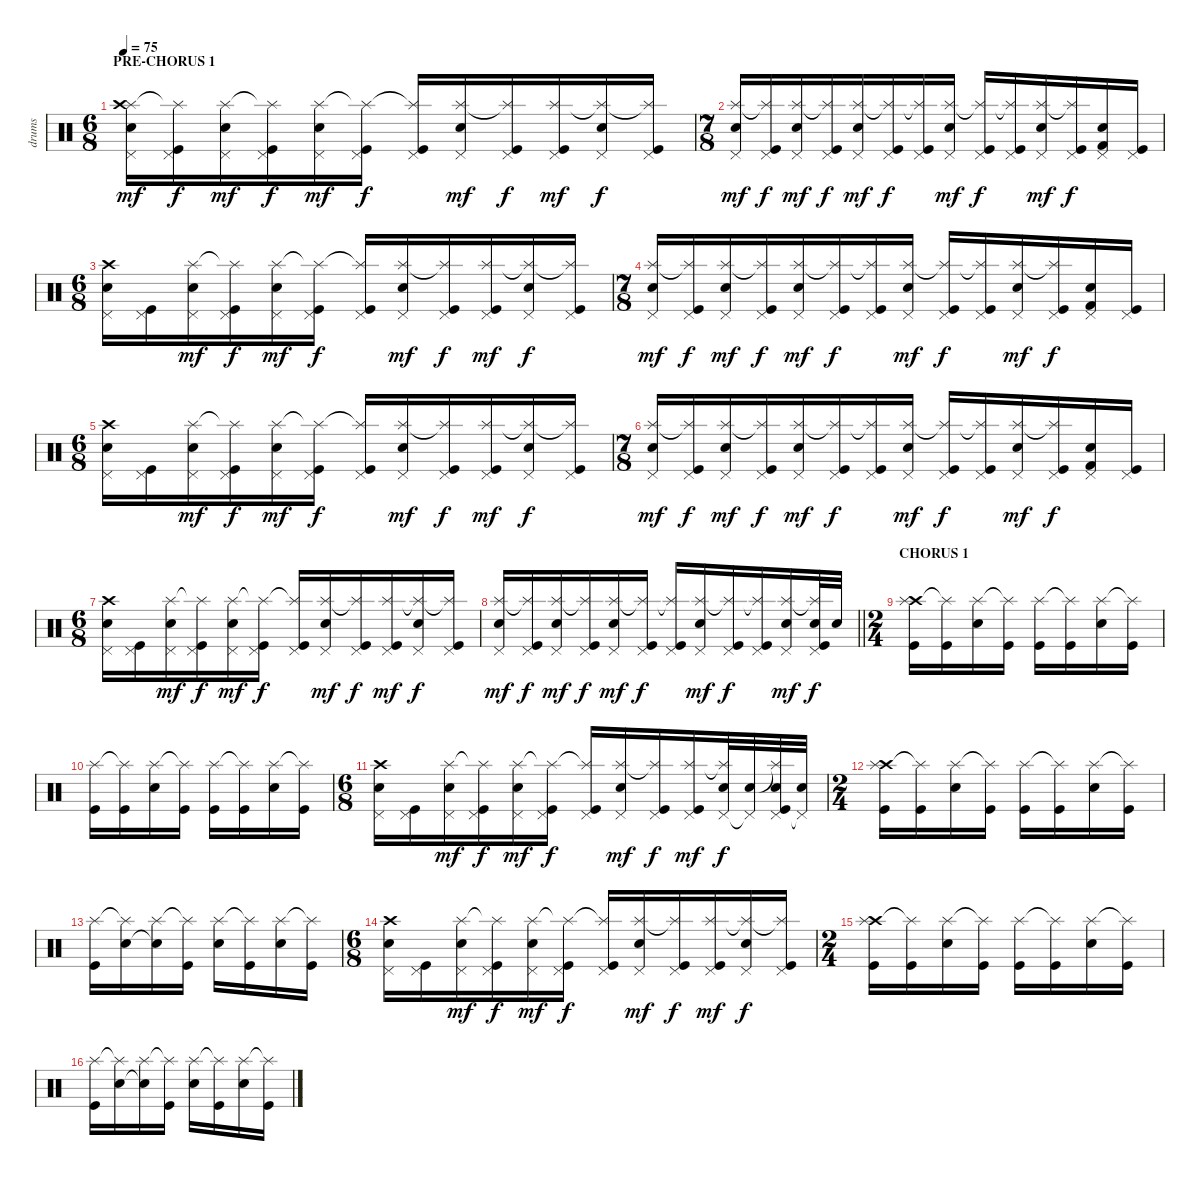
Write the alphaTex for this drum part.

\track ("drums" "drums") {instrument percussion}
\staff {score}
\articulation defaults
\ts (6 8)
\section ("" "PRE-CHORUS 1")
\tempo 75
\clef neutral
\ks c
("Pedal Hi-Hat (hit)" "Splash (hit)" "Electric Snare (hit)" "Crash high (hit)").16{dy mf} ("Pedal Hi-Hat (hit)" "Splash (hit)"{t} "Kick (hit)").16{dy f} ("Pedal Hi-Hat (hit)" "Splash (hit)" "Electric Snare (hit)").16{dy mf} ("Pedal Hi-Hat (hit)" "Splash (hit)"{t} "Kick (hit)").16{dy f} ("Pedal Hi-Hat (hit)" "Splash (hit)" "Electric Snare (hit)").16{dy mf} ("Pedal Hi-Hat (hit)" "Splash (hit)"{t} "Kick (hit)").16{dy f} ("Pedal Hi-Hat (hit)" "Splash (hit)"{t} "Kick (hit)").16 ("Pedal Hi-Hat (hit)" "Splash (hit)" "Electric Snare (hit)").16{dy mf} ("Pedal Hi-Hat (hit)" "Splash (hit)"{t} "Kick (hit)").16{dy f} ("Pedal Hi-Hat (hit)" "Splash (hit)" "Kick (hit)").16{dy mf} ("Pedal Hi-Hat (hit)" "Splash (hit)"{t} "Electric Snare (hit)").16{dy f} ("Pedal Hi-Hat (hit)" "Splash (hit)"{t} "Kick (hit)").16 |
\ts (7 8)
("Pedal Hi-Hat (hit)" "Splash (hit)" "Electric Snare (hit)").16{dy mf} ("Pedal Hi-Hat (hit)" "Splash (hit)"{t} "Kick (hit)").16{dy f} ("Pedal Hi-Hat (hit)" "Splash (hit)" "Electric Snare (hit)").16{dy mf} ("Pedal Hi-Hat (hit)" "Splash (hit)"{t} "Kick (hit)").16{dy f} ("Pedal Hi-Hat (hit)" "Splash (hit)" "Electric Snare (hit)").16{dy mf} ("Pedal Hi-Hat (hit)" "Splash (hit)"{t} "Kick (hit)").16{dy f} ("Pedal Hi-Hat (hit)" "Splash (hit)"{t} "Kick (hit)").16 ("Pedal Hi-Hat (hit)" "Splash (hit)" "Electric Snare (hit)").16{dy mf} ("Pedal Hi-Hat (hit)" "Splash (hit)"{t} "Kick (hit)").16{dy f} ("Pedal Hi-Hat (hit)" "Splash (hit)"{t} "Kick (hit)").16 ("Pedal Hi-Hat (hit)" "Splash (hit)" "Electric Snare (hit)").16{dy mf} ("Pedal Hi-Hat (hit)" "Splash (hit)"{t} "Kick (hit)").16{dy f} ("Pedal Hi-Hat (hit)" "Electric Snare (hit)" "Kick (hit) 2").16 ("Pedal Hi-Hat (hit)" "Kick (hit)").16 |
\ts (6 8)
("Pedal Hi-Hat (hit)" "Electric Snare (hit)" "Crash high (hit)").16 ("Pedal Hi-Hat (hit)" "Kick (hit)").16 ("Pedal Hi-Hat (hit)" "Splash (hit)" "Electric Snare (hit)").16{dy mf} ("Pedal Hi-Hat (hit)" "Splash (hit)"{t} "Kick (hit)").16{dy f} ("Pedal Hi-Hat (hit)" "Splash (hit)" "Electric Snare (hit)").16{dy mf} ("Pedal Hi-Hat (hit)" "Splash (hit)"{t} "Kick (hit)").16{dy f} ("Pedal Hi-Hat (hit)" "Splash (hit)"{t} "Kick (hit)").16 ("Pedal Hi-Hat (hit)" "Splash (hit)" "Electric Snare (hit)").16{dy mf} ("Pedal Hi-Hat (hit)" "Splash (hit)"{t} "Kick (hit)").16{dy f} ("Pedal Hi-Hat (hit)" "Splash (hit)" "Kick (hit)").16{dy mf} ("Pedal Hi-Hat (hit)" "Splash (hit)"{t} "Electric Snare (hit)").16{dy f} ("Pedal Hi-Hat (hit)" "Splash (hit)"{t} "Kick (hit)").16 |
\ts (7 8)
("Pedal Hi-Hat (hit)" "Splash (hit)" "Electric Snare (hit)").16{dy mf} ("Pedal Hi-Hat (hit)" "Splash (hit)"{t} "Kick (hit)").16{dy f} ("Pedal Hi-Hat (hit)" "Splash (hit)" "Electric Snare (hit)").16{dy mf} ("Pedal Hi-Hat (hit)" "Splash (hit)"{t} "Kick (hit)").16{dy f} ("Pedal Hi-Hat (hit)" "Splash (hit)" "Electric Snare (hit)").16{dy mf} ("Pedal Hi-Hat (hit)" "Splash (hit)"{t} "Kick (hit)").16{dy f} ("Pedal Hi-Hat (hit)" "Splash (hit)"{t} "Kick (hit)").16 ("Pedal Hi-Hat (hit)" "Splash (hit)" "Electric Snare (hit)").16{dy mf} ("Pedal Hi-Hat (hit)" "Splash (hit)"{t} "Kick (hit)").16{dy f} ("Pedal Hi-Hat (hit)" "Splash (hit)"{t} "Kick (hit)").16 ("Pedal Hi-Hat (hit)" "Splash (hit)" "Electric Snare (hit)").16{dy mf} ("Pedal Hi-Hat (hit)" "Splash (hit)"{t} "Kick (hit)").16{dy f} ("Pedal Hi-Hat (hit)" "Electric Snare (hit)" "Kick (hit) 2").16 ("Pedal Hi-Hat (hit)" "Kick (hit)").16 |
\ts (6 8)
("Pedal Hi-Hat (hit)" "Electric Snare (hit)" "Crash high (hit)").16 ("Pedal Hi-Hat (hit)" "Kick (hit)").16 ("Pedal Hi-Hat (hit)" "Splash (hit)" "Electric Snare (hit)").16{dy mf} ("Pedal Hi-Hat (hit)" "Splash (hit)"{t} "Kick (hit)").16{dy f} ("Pedal Hi-Hat (hit)" "Splash (hit)" "Electric Snare (hit)").16{dy mf} ("Pedal Hi-Hat (hit)" "Splash (hit)"{t} "Kick (hit)").16{dy f} ("Pedal Hi-Hat (hit)" "Splash (hit)"{t} "Kick (hit)").16 ("Pedal Hi-Hat (hit)" "Splash (hit)" "Electric Snare (hit)").16{dy mf} ("Pedal Hi-Hat (hit)" "Splash (hit)"{t} "Kick (hit)").16{dy f} ("Pedal Hi-Hat (hit)" "Splash (hit)" "Kick (hit)").16{dy mf} ("Pedal Hi-Hat (hit)" "Splash (hit)"{t} "Electric Snare (hit)").16{dy f} ("Pedal Hi-Hat (hit)" "Splash (hit)"{t} "Kick (hit)").16 |
\ts (7 8)
("Pedal Hi-Hat (hit)" "Splash (hit)" "Electric Snare (hit)").16{dy mf} ("Pedal Hi-Hat (hit)" "Splash (hit)"{t} "Kick (hit)").16{dy f} ("Pedal Hi-Hat (hit)" "Splash (hit)" "Electric Snare (hit)").16{dy mf} ("Pedal Hi-Hat (hit)" "Splash (hit)"{t} "Kick (hit)").16{dy f} ("Pedal Hi-Hat (hit)" "Splash (hit)" "Electric Snare (hit)").16{dy mf} ("Pedal Hi-Hat (hit)" "Splash (hit)"{t} "Kick (hit)").16{dy f} ("Pedal Hi-Hat (hit)" "Splash (hit)"{t} "Kick (hit)").16 ("Pedal Hi-Hat (hit)" "Splash (hit)" "Electric Snare (hit)").16{dy mf} ("Pedal Hi-Hat (hit)" "Splash (hit)"{t} "Kick (hit)").16{dy f} ("Pedal Hi-Hat (hit)" "Splash (hit)"{t} "Kick (hit)").16 ("Pedal Hi-Hat (hit)" "Splash (hit)" "Electric Snare (hit)").16{dy mf} ("Pedal Hi-Hat (hit)" "Splash (hit)"{t} "Kick (hit)").16{dy f} ("Pedal Hi-Hat (hit)" "Electric Snare (hit)" "Kick (hit) 2").16 ("Pedal Hi-Hat (hit)" "Kick (hit)").16 |
\ts (6 8)
("Pedal Hi-Hat (hit)" "Electric Snare (hit)" "Crash high (hit)").16 ("Pedal Hi-Hat (hit)" "Kick (hit)").16 ("Pedal Hi-Hat (hit)" "Splash (hit)" "Electric Snare (hit)").16{dy mf} ("Pedal Hi-Hat (hit)" "Splash (hit)"{t} "Kick (hit)").16{dy f} ("Pedal Hi-Hat (hit)" "Splash (hit)" "Electric Snare (hit)").16{dy mf} ("Pedal Hi-Hat (hit)" "Splash (hit)"{t} "Kick (hit)").16{dy f} ("Pedal Hi-Hat (hit)" "Splash (hit)"{t} "Kick (hit)").16 ("Pedal Hi-Hat (hit)" "Splash (hit)" "Electric Snare (hit)").16{dy mf} ("Pedal Hi-Hat (hit)" "Splash (hit)"{t} "Kick (hit)").16{dy f} ("Pedal Hi-Hat (hit)" "Splash (hit)" "Kick (hit)").16{dy mf} ("Pedal Hi-Hat (hit)" "Splash (hit)"{t} "Electric Snare (hit)").16{dy f} ("Pedal Hi-Hat (hit)" "Splash (hit)"{t} "Kick (hit)").16 |
\barLineRight lightlight
("Pedal Hi-Hat (hit)" "Splash (hit)" "Electric Snare (hit)").16{dy mf} ("Pedal Hi-Hat (hit)" "Splash (hit)"{t} "Kick (hit)").16{dy f} ("Pedal Hi-Hat (hit)" "Splash (hit)" "Electric Snare (hit)").16{dy mf} ("Pedal Hi-Hat (hit)" "Splash (hit)"{t} "Kick (hit)").16{dy f} ("Pedal Hi-Hat (hit)" "Splash (hit)" "Electric Snare (hit)").16{dy mf} ("Pedal Hi-Hat (hit)" "Splash (hit)"{t} "Kick (hit)").16{dy f} ("Pedal Hi-Hat (hit)" "Splash (hit)"{t} "Kick (hit)").16 ("Pedal Hi-Hat (hit)" "Splash (hit)" "Electric Snare (hit)").16{dy mf} ("Pedal Hi-Hat (hit)" "Splash (hit)"{t} "Kick (hit)").16{dy f} ("Pedal Hi-Hat (hit)" "Splash (hit)"{t} "Kick (hit)").16 ("Pedal Hi-Hat (hit)" "Splash (hit)" "Electric Snare (hit)").16{dy mf} ("Pedal Hi-Hat (hit)" "Splash (hit)"{t} "Electric Snare (hit)" "Kick (hit)").32{dy f} "Electric Snare (hit)".32 |
\ts (2 4)
\section ("" "CHORUS 1")
("Crash high (hit)" "Splash (hit)" "Kick (hit)").16 ("Splash (hit)"{t} "Kick (hit)").16 ("Splash (hit)" "Electric Snare (hit)").16 ("Splash (hit)"{t} "Kick (hit)").16 ("Splash (hit)" "Kick (hit)").16 ("Splash (hit)"{t} "Kick (hit)").16 ("Splash (hit)" "Electric Snare (hit)").16 ("Splash (hit)"{t} "Kick (hit)").16 |
("Splash (hit)" "Kick (hit)").16 ("Splash (hit)"{t} "Kick (hit)").16 ("Splash (hit)" "Electric Snare (hit)").16 ("Splash (hit)"{t} "Kick (hit)").16 ("Splash (hit)" "Kick (hit)").16 ("Splash (hit)"{t} "Kick (hit)").16 ("Splash (hit)" "Electric Snare (hit)").16 ("Splash (hit)"{t} "Kick (hit)").16 |
\ts (6 8)
("Pedal Hi-Hat (hit)" "Electric Snare (hit)" "Crash high (hit)").16 ("Pedal Hi-Hat (hit)" "Kick (hit)").16 ("Pedal Hi-Hat (hit)" "Splash (hit)" "Electric Snare (hit)").16{dy mf} ("Pedal Hi-Hat (hit)" "Splash (hit)"{t} "Kick (hit)").16{dy f} ("Pedal Hi-Hat (hit)" "Splash (hit)" "Electric Snare (hit)").16{dy mf} ("Pedal Hi-Hat (hit)" "Splash (hit)"{t} "Kick (hit)").16{dy f} ("Pedal Hi-Hat (hit)" "Splash (hit)"{t} "Kick (hit)").16 ("Pedal Hi-Hat (hit)" "Splash (hit)" "Electric Snare (hit)").16{dy mf} ("Pedal Hi-Hat (hit)" "Splash (hit)"{t} "Kick (hit)").16{dy f} ("Pedal Hi-Hat (hit)" "Splash (hit)" "Kick (hit)").16{dy mf} ("Pedal Hi-Hat (hit)" "Splash (hit)"{t} "Electric Snare (hit)").32{dy f} ("Pedal Hi-Hat (hit)"{t} "Electric Snare (hit)").32 ("Pedal Hi-Hat (hit)" "Splash (hit)"{t} "Electric Snare (hit)" "Kick (hit)").32 ("Pedal Hi-Hat (hit)"{t} "Electric Snare (hit)").32 |
\ts (2 4)
("Crash high (hit)" "Splash (hit)" "Kick (hit)").16 ("Splash (hit)"{t} "Kick (hit)").16 ("Splash (hit)" "Electric Snare (hit)").16 ("Splash (hit)"{t} "Kick (hit)").16 ("Splash (hit)" "Kick (hit)").16 ("Splash (hit)"{t} "Kick (hit)").16 ("Splash (hit)" "Electric Snare (hit)").16 ("Splash (hit)"{t} "Kick (hit)").16 |
("Splash (hit)" "Kick (hit)").16 ("Splash (hit)"{t} "Electric Snare (hit)").16 ("Splash (hit)" "Electric Snare (hit)"{t}).16 ("Splash (hit)"{t} "Kick (hit)").16 ("Splash (hit)" "Electric Snare (hit)").16 ("Splash (hit)"{t} "Kick (hit)").16 ("Splash (hit)" "Electric Snare (hit)").16 ("Splash (hit)"{t} "Kick (hit)").16 |
\ts (6 8)
("Pedal Hi-Hat (hit)" "Electric Snare (hit)" "Crash high (hit)").16 ("Pedal Hi-Hat (hit)" "Kick (hit)").16 ("Pedal Hi-Hat (hit)" "Splash (hit)" "Electric Snare (hit)").16{dy mf} ("Pedal Hi-Hat (hit)" "Splash (hit)"{t} "Kick (hit)").16{dy f} ("Pedal Hi-Hat (hit)" "Splash (hit)" "Electric Snare (hit)").16{dy mf} ("Pedal Hi-Hat (hit)" "Splash (hit)"{t} "Kick (hit)").16{dy f} ("Pedal Hi-Hat (hit)" "Splash (hit)"{t} "Kick (hit)").16 ("Pedal Hi-Hat (hit)" "Splash (hit)" "Electric Snare (hit)").16{dy mf} ("Pedal Hi-Hat (hit)" "Splash (hit)"{t} "Kick (hit)").16{dy f} ("Pedal Hi-Hat (hit)" "Splash (hit)" "Kick (hit)").16{dy mf} ("Pedal Hi-Hat (hit)" "Splash (hit)"{t} "Electric Snare (hit)").16{dy f} ("Pedal Hi-Hat (hit)" "Splash (hit)"{t} "Kick (hit)").16 |
\ts (2 4)
("Crash high (hit)" "Splash (hit)" "Kick (hit)").16 ("Splash (hit)"{t} "Kick (hit)").16 ("Splash (hit)" "Electric Snare (hit)").16 ("Splash (hit)"{t} "Kick (hit)").16 ("Splash (hit)" "Kick (hit)").16 ("Splash (hit)"{t} "Kick (hit)").16 ("Splash (hit)" "Electric Snare (hit)").16 ("Splash (hit)"{t} "Kick (hit)").16 |
("Splash (hit)" "Kick (hit)").16 ("Splash (hit)"{t} "Electric Snare (hit)").16 ("Splash (hit)" "Electric Snare (hit)"{t}).16 ("Splash (hit)"{t} "Kick (hit)").16 ("Splash (hit)" "Electric Snare (hit)").16 ("Splash (hit)"{t} "Kick (hit)").16 ("Splash (hit)" "Electric Snare (hit)").16 ("Splash (hit)"{t} "Kick (hit)").16
